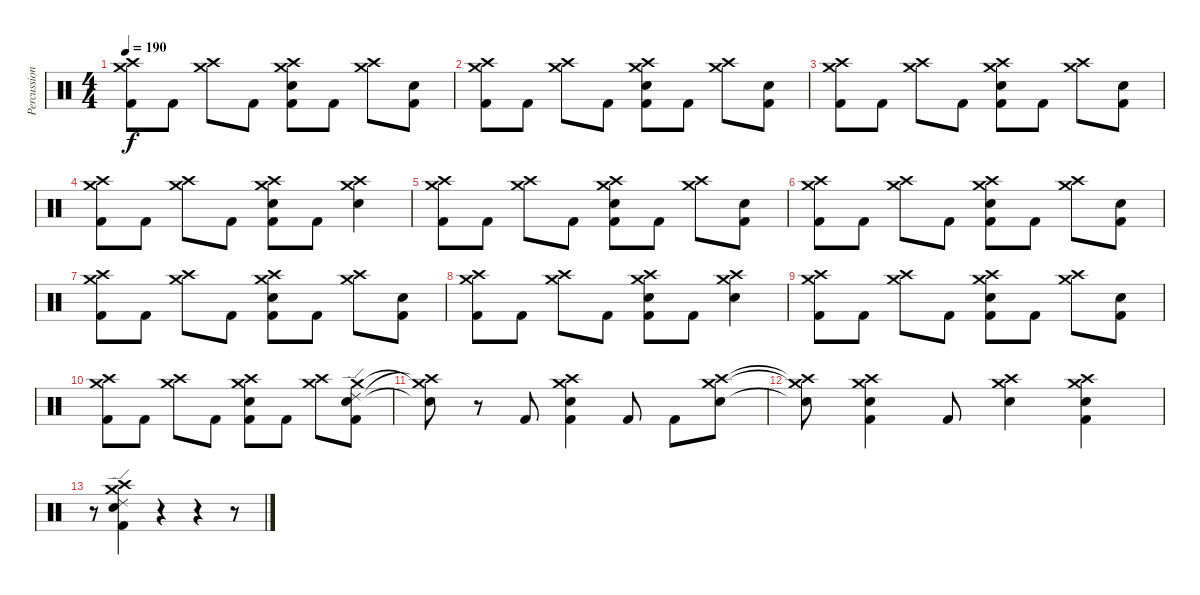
\track ("Percussion" "Percussion") {instrument percussion}
\staff {score}
\articulation defaults
\ts (4 4)
\tempo 190
\clef neutral
\ks c
("Crash medium (hit)" "Crash high (hit)" "Kick (hit) 2").8{dy f} "Kick (hit) 2".8 ("Crash medium (hit)" "Crash high (hit)").8 "Kick (hit) 2".8 ("Crash medium (hit)" "Crash high (hit)" "Electric Snare (hit)" "Kick (hit) 2").8 "Kick (hit) 2".8 ("Crash medium (hit)" "Crash high (hit)").8 ("Electric Snare (hit)" "Kick (hit) 2").8 |
("Crash medium (hit)" "Crash high (hit)" "Kick (hit) 2").8 "Kick (hit) 2".8 ("Crash medium (hit)" "Crash high (hit)").8 "Kick (hit) 2".8 ("Crash medium (hit)" "Crash high (hit)" "Electric Snare (hit)" "Kick (hit) 2").8 "Kick (hit) 2".8 ("Crash medium (hit)" "Crash high (hit)").8 ("Electric Snare (hit)" "Kick (hit) 2").8 |
("Crash medium (hit)" "Crash high (hit)" "Kick (hit) 2").8 "Kick (hit) 2".8 ("Crash medium (hit)" "Crash high (hit)").8 "Kick (hit) 2".8 ("Crash medium (hit)" "Crash high (hit)" "Electric Snare (hit)" "Kick (hit) 2").8 "Kick (hit) 2".8 ("Crash medium (hit)" "Crash high (hit)").8 ("Electric Snare (hit)" "Kick (hit) 2").8 |
("Crash medium (hit)" "Crash high (hit)" "Kick (hit) 2").8 "Kick (hit) 2".8 ("Crash medium (hit)" "Crash high (hit)").8 "Kick (hit) 2".8 ("Crash medium (hit)" "Crash high (hit)" "Electric Snare (hit)" "Kick (hit) 2").8 "Kick (hit) 2".8 ("Crash medium (hit)" "Crash high (hit)" "Electric Snare (hit)").4 |
("Crash medium (hit)" "Crash high (hit)" "Kick (hit) 2").8 "Kick (hit) 2".8 ("Crash medium (hit)" "Crash high (hit)").8 "Kick (hit) 2".8 ("Crash medium (hit)" "Crash high (hit)" "Electric Snare (hit)" "Kick (hit) 2").8 "Kick (hit) 2".8 ("Crash medium (hit)" "Crash high (hit)").8 ("Electric Snare (hit)" "Kick (hit) 2").8 |
("Crash medium (hit)" "Crash high (hit)" "Kick (hit) 2").8 "Kick (hit) 2".8 ("Crash medium (hit)" "Crash high (hit)").8 "Kick (hit) 2".8 ("Crash medium (hit)" "Crash high (hit)" "Electric Snare (hit)" "Kick (hit) 2").8 "Kick (hit) 2".8 ("Crash medium (hit)" "Crash high (hit)").8 ("Electric Snare (hit)" "Kick (hit) 2").8 |
("Crash medium (hit)" "Crash high (hit)" "Kick (hit) 2").8 "Kick (hit) 2".8 ("Crash medium (hit)" "Crash high (hit)").8 "Kick (hit) 2".8 ("Crash medium (hit)" "Crash high (hit)" "Electric Snare (hit)" "Kick (hit) 2").8 "Kick (hit) 2".8 ("Crash medium (hit)" "Crash high (hit)").8 ("Electric Snare (hit)" "Kick (hit) 2").8 |
("Crash medium (hit)" "Crash high (hit)" "Kick (hit) 2").8 "Kick (hit) 2".8 ("Crash medium (hit)" "Crash high (hit)").8 "Kick (hit) 2".8 ("Crash medium (hit)" "Crash high (hit)" "Electric Snare (hit)" "Kick (hit) 2").8 "Kick (hit) 2".8 ("Crash medium (hit)" "Crash high (hit)" "Electric Snare (hit)").4 |
("Crash medium (hit)" "Crash high (hit)" "Kick (hit) 2").8 "Kick (hit) 2".8 ("Crash medium (hit)" "Crash high (hit)").8 "Kick (hit) 2".8 ("Crash medium (hit)" "Crash high (hit)" "Electric Snare (hit)" "Kick (hit) 2").8 "Kick (hit) 2".8 ("Crash medium (hit)" "Crash high (hit)").8 ("Electric Snare (hit)" "Kick (hit) 2").8 |
("Crash medium (hit)" "Crash high (hit)" "Kick (hit) 2").8 "Kick (hit) 2".8 ("Crash medium (hit)" "Crash high (hit)").8 "Kick (hit) 2".8 ("Crash medium (hit)" "Crash high (hit)" "Electric Snare (hit)" "Kick (hit) 2").8 "Kick (hit) 2".8 ("Crash medium (hit)" "Crash high (hit)").8 ("Crash medium (hit)" "Ride (edge) 2" "Electric Snare (hit)" "Kick (hit) 2").8 |
("Crash medium (hit)"{t} "Crash high (hit)"{t} "Electric Snare (hit)"{t}).8 r.8 "Kick (hit) 2".8 ("Crash medium (hit)" "Crash high (hit)" "Electric Snare (hit)" "Kick (hit) 2").4 "Kick (hit) 2".8 "Kick (hit) 2".8 ("Crash medium (hit)" "Crash high (hit)" "Electric Snare (hit)").8 |
("Crash medium (hit)"{t} "Crash high (hit)"{t} "Electric Snare (hit)"{t}).8 ("Crash medium (hit)" "Crash high (hit)" "Electric Snare (hit)" "Kick (hit) 2").4 "Kick (hit) 2".8 ("Crash medium (hit)" "Crash high (hit)" "Electric Snare (hit)").4 ("Crash medium (hit)" "Crash high (hit)" "Electric Snare (hit)" "Kick (hit) 2").4 |
r.8 ("Crash medium (hit)" "Crash high (hit)" "Ride (edge) 2" "Electric Snare (hit)" "Kick (hit) 2").4 r.4 r.4 r.8
